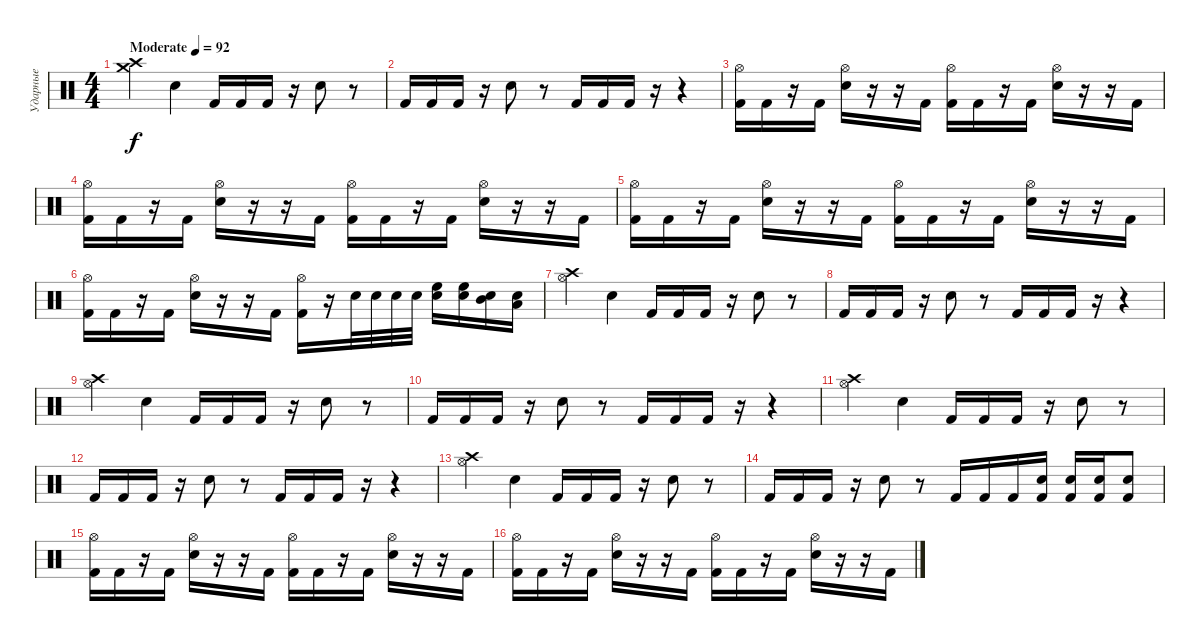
\track ("Ударные" "Ударные") {instrument percussion}
\staff {score}
\articulation defaults
\ts (4 4)
\tempo (92 "Moderate")
\clef neutral
\ks c
("Crash medium (hit)" "Crash high (hit)").4{dy f} "Snare (hit) 2".4 "Kick (hit) 2".16 "Kick (hit) 2".16 "Kick (hit) 2".16 r.16 "Snare (hit) 2".8 r.8 |
"Kick (hit) 2".16 "Kick (hit) 2".16 "Kick (hit) 2".16 r.16 "Snare (hit) 2".8 r.8 "Kick (hit) 2".16 "Kick (hit) 2".16 "Kick (hit) 2".16 r.16 r.4 |
("Hi-Hat (open)" "Kick (hit) 2").16 "Kick (hit) 2".16 r.16 "Kick (hit) 2".16 ("Hi-Hat (open)" "Snare (hit) 2").16 r.16 r.16 "Kick (hit) 2".16 ("Hi-Hat (open)" "Kick (hit) 2").16 "Kick (hit) 2".16 r.16 "Kick (hit) 2".16 ("Hi-Hat (open)" "Snare (hit) 2").16 r.16 r.16 "Kick (hit) 2".16 |
("Hi-Hat (open)" "Kick (hit) 2").16 "Kick (hit) 2".16 r.16 "Kick (hit) 2".16 ("Hi-Hat (open)" "Snare (hit) 2").16 r.16 r.16 "Kick (hit) 2".16 ("Hi-Hat (open)" "Kick (hit) 2").16 "Kick (hit) 2".16 r.16 "Kick (hit) 2".16 ("Hi-Hat (open)" "Snare (hit) 2").16 r.16 r.16 "Kick (hit) 2".16 |
("Hi-Hat (open)" "Kick (hit) 2").16 "Kick (hit) 2".16 r.16 "Kick (hit) 2".16 ("Hi-Hat (open)" "Snare (hit) 2").16 r.16 r.16 "Kick (hit) 2".16 ("Hi-Hat (open)" "Kick (hit) 2").16 "Kick (hit) 2".16 r.16 "Kick (hit) 2".16 ("Hi-Hat (open)" "Snare (hit) 2").16 r.16 r.16 "Kick (hit) 2".16 |
("Hi-Hat (open)" "Kick (hit) 2").16 "Kick (hit) 2".16 r.16 "Kick (hit) 2".16 ("Hi-Hat (open)" "Snare (hit) 2").16 r.16 r.16 "Kick (hit) 2".16 ("Hi-Hat (open)" "Kick (hit) 2").16 r.16 "Snare (hit) 2".32 "Snare (hit) 2".32 "Snare (hit) 2".32 "Snare (hit) 2".32 ("High Floor Tom (hit)" "Snare (hit) 2").16 ("High Floor Tom (hit)" "Snare (hit) 2").16 ("Mid Tom (hit)" "Snare (hit) 2").16 ("Low Tom (hit)" "Snare (hit) 2").16 |
("Hi-Hat (open)" "Crash high (hit)").4 "Snare (hit) 2".4 "Kick (hit) 2".16 "Kick (hit) 2".16 "Kick (hit) 2".16 r.16 "Snare (hit) 2".8 r.8 |
"Kick (hit) 2".16 "Kick (hit) 2".16 "Kick (hit) 2".16 r.16 "Snare (hit) 2".8 r.8 "Kick (hit) 2".16 "Kick (hit) 2".16 "Kick (hit) 2".16 r.16 r.4 |
("Hi-Hat (open)" "Crash high (hit)").4 "Snare (hit) 2".4 "Kick (hit) 2".16 "Kick (hit) 2".16 "Kick (hit) 2".16 r.16 "Snare (hit) 2".8 r.8 |
"Kick (hit) 2".16 "Kick (hit) 2".16 "Kick (hit) 2".16 r.16 "Snare (hit) 2".8 r.8 "Kick (hit) 2".16 "Kick (hit) 2".16 "Kick (hit) 2".16 r.16 r.4 |
("Hi-Hat (open)" "Crash high (hit)").4 "Snare (hit) 2".4 "Kick (hit) 2".16 "Kick (hit) 2".16 "Kick (hit) 2".16 r.16 "Snare (hit) 2".8 r.8 |
"Kick (hit) 2".16 "Kick (hit) 2".16 "Kick (hit) 2".16 r.16 "Snare (hit) 2".8 r.8 "Kick (hit) 2".16 "Kick (hit) 2".16 "Kick (hit) 2".16 r.16 r.4 |
("Hi-Hat (open)" "Crash high (hit)").4 "Snare (hit) 2".4 "Kick (hit) 2".16 "Kick (hit) 2".16 "Kick (hit) 2".16 r.16 "Snare (hit) 2".8 r.8 |
"Kick (hit) 2".16 "Kick (hit) 2".16 "Kick (hit) 2".16 r.16 "Snare (hit) 2".8 r.8 "Kick (hit) 2".16 "Kick (hit) 2".16 "Kick (hit) 2".16 ("Snare (hit) 2" "Kick (hit) 2").16 ("Snare (hit) 2" "Kick (hit) 2").16 ("Snare (hit) 2" "Kick (hit) 2").16 ("Snare (hit) 2" "Kick (hit) 2").8 |
("Hi-Hat (open)" "Kick (hit) 2").16 "Kick (hit) 2".16 r.16 "Kick (hit) 2".16 ("Hi-Hat (open)" "Snare (hit) 2").16 r.16 r.16 "Kick (hit) 2".16 ("Hi-Hat (open)" "Kick (hit) 2").16 "Kick (hit) 2".16 r.16 "Kick (hit) 2".16 ("Hi-Hat (open)" "Snare (hit) 2").16 r.16 r.16 "Kick (hit) 2".16 |
("Hi-Hat (open)" "Kick (hit) 2").16 "Kick (hit) 2".16 r.16 "Kick (hit) 2".16 ("Hi-Hat (open)" "Snare (hit) 2").16 r.16 r.16 "Kick (hit) 2".16 ("Hi-Hat (open)" "Kick (hit) 2").16 "Kick (hit) 2".16 r.16 "Kick (hit) 2".16 ("Hi-Hat (open)" "Snare (hit) 2").16 r.16 r.16 "Kick (hit) 2".16
